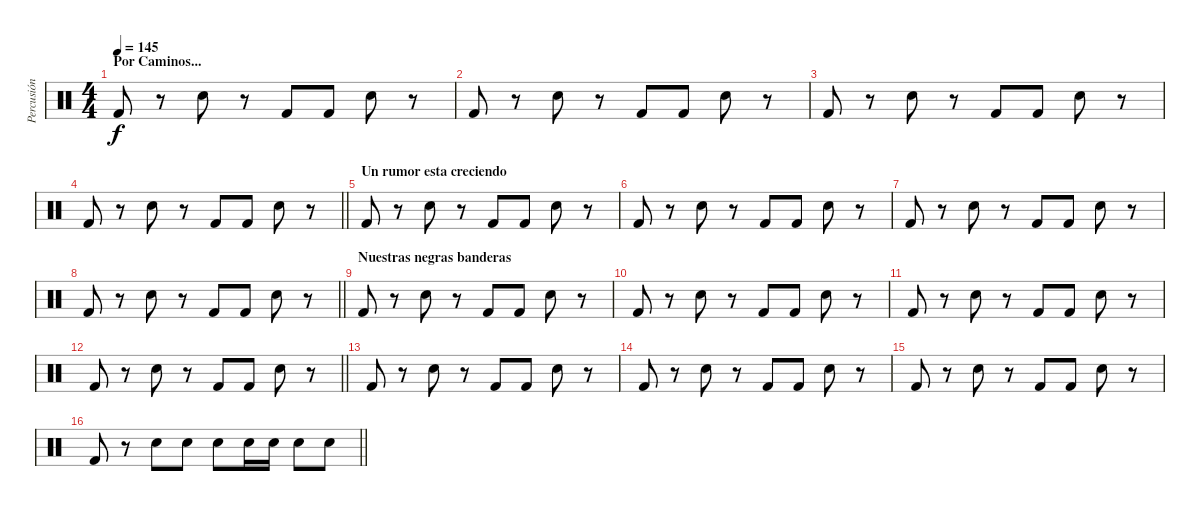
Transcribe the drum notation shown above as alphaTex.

\track ("Percusión" "Percusión") {instrument percussion}
\staff {score}
\articulation defaults
\ts (4 4)
\section ("" "Por Caminos...")
\tempo 145
\clef neutral
\ks c "Kick (hit) 2".8{dy f}
r.8 "Snare (hit) 2".8 r.8 "Kick (hit) 2".8 "Kick (hit) 2".8 "Snare (hit) 2".8 r.8 |
"Kick (hit) 2".8 r.8 "Snare (hit) 2".8 r.8 "Kick (hit) 2".8 "Kick (hit) 2".8 "Snare (hit) 2".8 r.8 |
"Kick (hit) 2".8 r.8 "Snare (hit) 2".8 r.8 "Kick (hit) 2".8 "Kick (hit) 2".8 "Snare (hit) 2".8 r.8 |
\barLineRight lightlight "Kick (hit) 2".8
r.8 "Snare (hit) 2".8 r.8 "Kick (hit) 2".8 "Kick (hit) 2".8 "Snare (hit) 2".8 r.8 |
\section ("" "Un rumor esta creciendo")
"Kick (hit) 2".8 r.8 "Snare (hit) 2".8 r.8 "Kick (hit) 2".8 "Kick (hit) 2".8 "Snare (hit) 2".8 r.8 |
"Kick (hit) 2".8 r.8 "Snare (hit) 2".8 r.8 "Kick (hit) 2".8 "Kick (hit) 2".8 "Snare (hit) 2".8 r.8 |
"Kick (hit) 2".8 r.8 "Snare (hit) 2".8 r.8 "Kick (hit) 2".8 "Kick (hit) 2".8 "Snare (hit) 2".8 r.8 |
\barLineRight lightlight "Kick (hit) 2".8
r.8 "Snare (hit) 2".8 r.8 "Kick (hit) 2".8 "Kick (hit) 2".8 "Snare (hit) 2".8 r.8 |
\section ("" "Nuestras negras banderas")
"Kick (hit) 2".8 r.8 "Snare (hit) 2".8 r.8 "Kick (hit) 2".8 "Kick (hit) 2".8 "Snare (hit) 2".8 r.8 |
"Kick (hit) 2".8 r.8 "Snare (hit) 2".8 r.8 "Kick (hit) 2".8 "Kick (hit) 2".8 "Snare (hit) 2".8 r.8 |
"Kick (hit) 2".8 r.8 "Snare (hit) 2".8 r.8 "Kick (hit) 2".8 "Kick (hit) 2".8 "Snare (hit) 2".8 r.8 |
\barLineRight lightlight "Kick (hit) 2".8
r.8 "Snare (hit) 2".8 r.8 "Kick (hit) 2".8 "Kick (hit) 2".8 "Snare (hit) 2".8 r.8 |
"Kick (hit) 2".8 r.8 "Snare (hit) 2".8 r.8 "Kick (hit) 2".8 "Kick (hit) 2".8 "Snare (hit) 2".8 r.8 |
"Kick (hit) 2".8 r.8 "Snare (hit) 2".8 r.8 "Kick (hit) 2".8 "Kick (hit) 2".8 "Snare (hit) 2".8 r.8 |
"Kick (hit) 2".8 r.8 "Snare (hit) 2".8 r.8 "Kick (hit) 2".8 "Kick (hit) 2".8 "Snare (hit) 2".8 r.8 |
\barLineRight lightlight "Kick (hit) 2".8
r.8 "Snare (hit) 2".8 "Snare (hit) 2".8 "Snare (hit) 2".8 "Snare (hit) 2".16 "Snare (hit) 2".16 "Snare (hit) 2".8 "Snare (hit) 2".8
